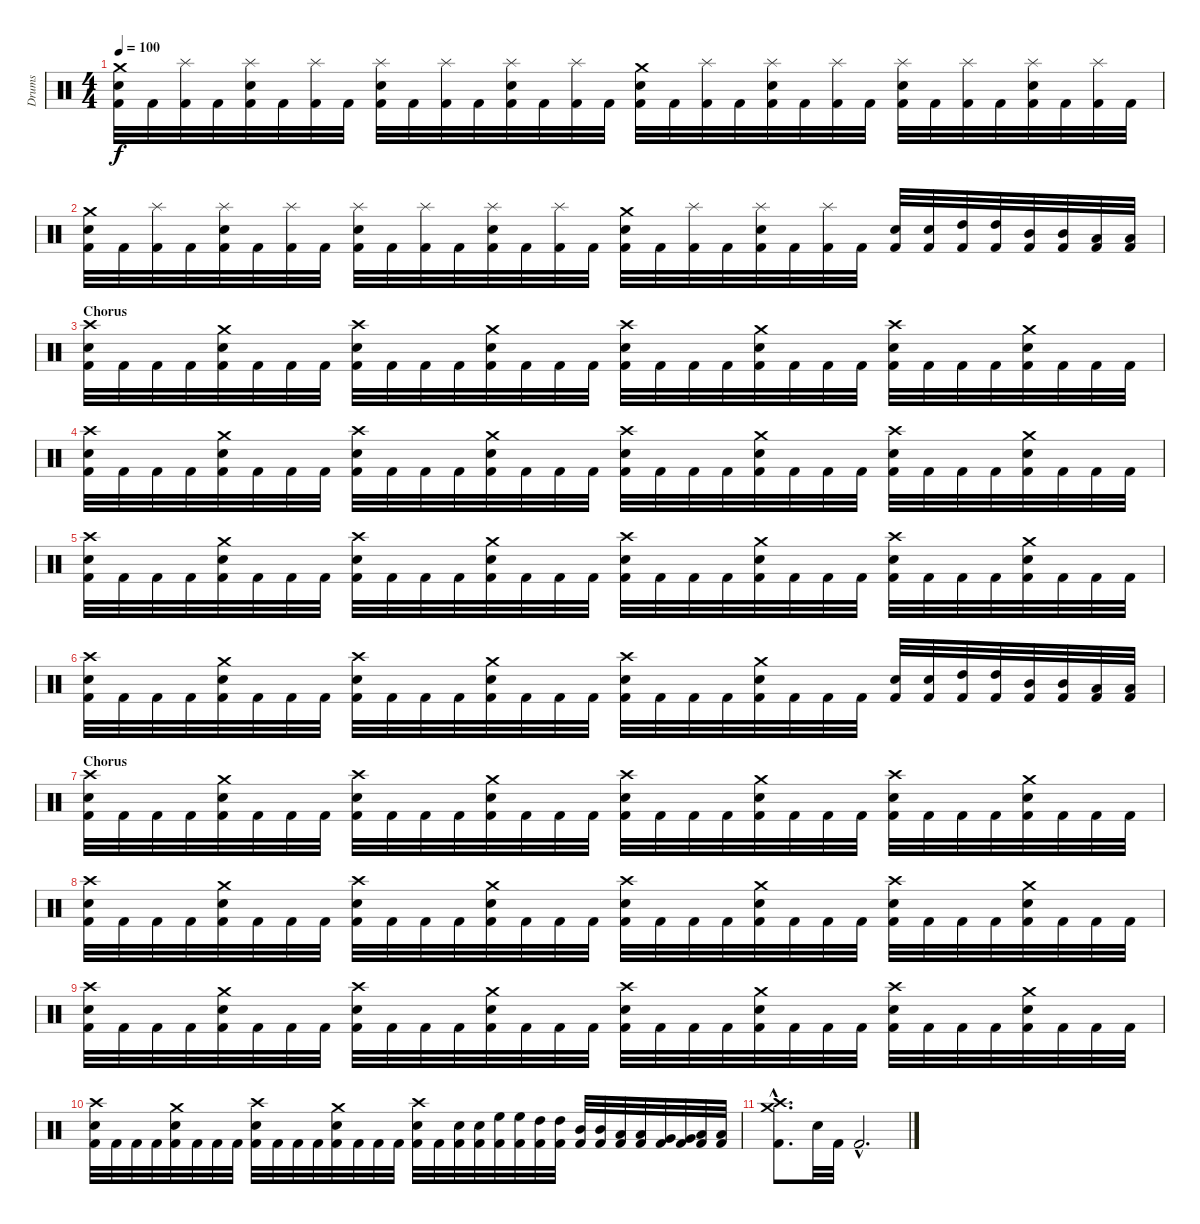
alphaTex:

\track ("Drums" "Drums") {instrument percussion}
\staff {score}
\articulation defaults
\ts (4 4)
\tempo 100
\clef neutral
\ks c
("Crash medium (hit)" "Electric Snare (hit)" "Kick (hit) 2").32{dy f} "Kick (hit) 2".32 ("Splash (hit)" "Kick (hit) 2").32 "Kick (hit) 2".32 ("Splash (hit)" "Electric Snare (hit)" "Kick (hit) 2").32 "Kick (hit) 2".32 ("Splash (hit)" "Kick (hit) 2").32 "Kick (hit) 2".32 ("Splash (hit)" "Electric Snare (hit)" "Kick (hit) 2").32{volume 6} "Kick (hit) 2".32 ("Splash (hit)" "Kick (hit) 2").32 "Kick (hit) 2".32 ("Splash (hit)" "Electric Snare (hit)" "Kick (hit) 2").32 "Kick (hit) 2".32 ("Splash (hit)" "Kick (hit) 2").32 "Kick (hit) 2".32 ("Crash medium (hit)" "Electric Snare (hit)" "Kick (hit) 2").32 "Kick (hit) 2".32 ("Splash (hit)" "Kick (hit) 2").32 "Kick (hit) 2".32 ("Splash (hit)" "Electric Snare (hit)" "Kick (hit) 2").32 "Kick (hit) 2".32 ("Splash (hit)" "Kick (hit) 2").32 "Kick (hit) 2".32 ("Splash (hit)" "Electric Snare (hit)" "Kick (hit) 2").32{volume 4} "Kick (hit) 2".32 ("Splash (hit)" "Kick (hit) 2").32 "Kick (hit) 2".32 ("Splash (hit)" "Electric Snare (hit)" "Kick (hit) 2").32 "Kick (hit) 2".32 ("Splash (hit)" "Kick (hit) 2").32 "Kick (hit) 2".32 |
("Crash medium (hit)" "Electric Snare (hit)" "Kick (hit) 2").32 "Kick (hit) 2".32 ("Splash (hit)" "Kick (hit) 2").32 "Kick (hit) 2".32 ("Splash (hit)" "Electric Snare (hit)" "Kick (hit) 2").32 "Kick (hit) 2".32 ("Splash (hit)" "Kick (hit) 2").32 "Kick (hit) 2".32 ("Splash (hit)" "Electric Snare (hit)" "Kick (hit) 2").32{volume 2} "Kick (hit) 2".32 ("Splash (hit)" "Kick (hit) 2").32 "Kick (hit) 2".32 ("Splash (hit)" "Electric Snare (hit)" "Kick (hit) 2").32 "Kick (hit) 2".32 ("Splash (hit)" "Kick (hit) 2").32 "Kick (hit) 2".32 ("Crash medium (hit)" "Electric Snare (hit)" "Kick (hit) 2").32 "Kick (hit) 2".32 ("Splash (hit)" "Kick (hit) 2").32 "Kick (hit) 2".32 ("Splash (hit)" "Electric Snare (hit)" "Kick (hit) 2").32 "Kick (hit) 2".32 ("Splash (hit)" "Kick (hit) 2").32 "Kick (hit) 2".32 ("Electric Snare (hit)" "Kick (hit) 2").32{volume 0} ("Electric Snare (hit)" "Kick (hit) 2").32 ("High Tom (hit)" "Kick (hit) 2").32 ("High Tom (hit)" "Kick (hit) 2").32 ("Mid Tom (hit)" "Kick (hit) 2").32 ("Mid Tom (hit)" "Kick (hit) 2").32 ("Low Tom (hit)" "Kick (hit) 2").32 ("Low Tom (hit)" "Kick (hit) 2").32 |
\section ("" "Chorus")
("Crash high (hit)" "Electric Snare (hit)" "Kick (hit) 2").32 "Kick (hit) 2".32 "Kick (hit) 2".32 "Kick (hit) 2".32 ("Crash medium (hit)" "Electric Snare (hit)" "Kick (hit) 2").32 "Kick (hit) 2".32 "Kick (hit) 2".32 "Kick (hit) 2".32 ("Crash high (hit)" "Electric Snare (hit)" "Kick (hit) 2").32{volume 2} "Kick (hit) 2".32 "Kick (hit) 2".32 "Kick (hit) 2".32 ("Crash medium (hit)" "Electric Snare (hit)" "Kick (hit) 2").32 "Kick (hit) 2".32 "Kick (hit) 2".32 "Kick (hit) 2".32 ("Crash high (hit)" "Electric Snare (hit)" "Kick (hit) 2").32 "Kick (hit) 2".32 "Kick (hit) 2".32 "Kick (hit) 2".32 ("Crash medium (hit)" "Electric Snare (hit)" "Kick (hit) 2").32 "Kick (hit) 2".32 "Kick (hit) 2".32 "Kick (hit) 2".32 ("Crash high (hit)" "Electric Snare (hit)" "Kick (hit) 2").32{volume 4} "Kick (hit) 2".32 "Kick (hit) 2".32 "Kick (hit) 2".32 ("Crash medium (hit)" "Electric Snare (hit)" "Kick (hit) 2").32 "Kick (hit) 2".32 "Kick (hit) 2".32 "Kick (hit) 2".32 |
("Crash high (hit)" "Electric Snare (hit)" "Kick (hit) 2").32 "Kick (hit) 2".32 "Kick (hit) 2".32 "Kick (hit) 2".32 ("Crash medium (hit)" "Electric Snare (hit)" "Kick (hit) 2").32 "Kick (hit) 2".32 "Kick (hit) 2".32 "Kick (hit) 2".32 ("Crash high (hit)" "Electric Snare (hit)" "Kick (hit) 2").32{volume 6} "Kick (hit) 2".32 "Kick (hit) 2".32 "Kick (hit) 2".32 ("Crash medium (hit)" "Electric Snare (hit)" "Kick (hit) 2").32 "Kick (hit) 2".32 "Kick (hit) 2".32 "Kick (hit) 2".32 ("Crash high (hit)" "Electric Snare (hit)" "Kick (hit) 2").32 "Kick (hit) 2".32 "Kick (hit) 2".32 "Kick (hit) 2".32 ("Crash medium (hit)" "Electric Snare (hit)" "Kick (hit) 2").32 "Kick (hit) 2".32 "Kick (hit) 2".32 "Kick (hit) 2".32 ("Crash high (hit)" "Electric Snare (hit)" "Kick (hit) 2").32{volume 8} "Kick (hit) 2".32 "Kick (hit) 2".32 "Kick (hit) 2".32 ("Crash medium (hit)" "Electric Snare (hit)" "Kick (hit) 2").32 "Kick (hit) 2".32 "Kick (hit) 2".32 "Kick (hit) 2".32 |
("Crash high (hit)" "Electric Snare (hit)" "Kick (hit) 2").32 "Kick (hit) 2".32 "Kick (hit) 2".32 "Kick (hit) 2".32 ("Crash medium (hit)" "Electric Snare (hit)" "Kick (hit) 2").32 "Kick (hit) 2".32 "Kick (hit) 2".32 "Kick (hit) 2".32 ("Crash high (hit)" "Electric Snare (hit)" "Kick (hit) 2").32{volume 10} "Kick (hit) 2".32 "Kick (hit) 2".32 "Kick (hit) 2".32 ("Crash medium (hit)" "Electric Snare (hit)" "Kick (hit) 2").32 "Kick (hit) 2".32 "Kick (hit) 2".32 "Kick (hit) 2".32 ("Crash high (hit)" "Electric Snare (hit)" "Kick (hit) 2").32 "Kick (hit) 2".32 "Kick (hit) 2".32 "Kick (hit) 2".32 ("Crash medium (hit)" "Electric Snare (hit)" "Kick (hit) 2").32 "Kick (hit) 2".32 "Kick (hit) 2".32 "Kick (hit) 2".32 ("Crash high (hit)" "Electric Snare (hit)" "Kick (hit) 2").32{volume 12} "Kick (hit) 2".32 "Kick (hit) 2".32 "Kick (hit) 2".32 ("Crash medium (hit)" "Electric Snare (hit)" "Kick (hit) 2").32 "Kick (hit) 2".32 "Kick (hit) 2".32 "Kick (hit) 2".32 |
("Crash high (hit)" "Electric Snare (hit)" "Kick (hit) 2").32 "Kick (hit) 2".32 "Kick (hit) 2".32 "Kick (hit) 2".32 ("Crash medium (hit)" "Electric Snare (hit)" "Kick (hit) 2").32 "Kick (hit) 2".32 "Kick (hit) 2".32 "Kick (hit) 2".32 ("Crash high (hit)" "Electric Snare (hit)" "Kick (hit) 2").32{volume 14} "Kick (hit) 2".32 "Kick (hit) 2".32 "Kick (hit) 2".32 ("Crash medium (hit)" "Electric Snare (hit)" "Kick (hit) 2").32 "Kick (hit) 2".32 "Kick (hit) 2".32 "Kick (hit) 2".32 ("Crash high (hit)" "Electric Snare (hit)" "Kick (hit) 2").32 "Kick (hit) 2".32 "Kick (hit) 2".32 "Kick (hit) 2".32 ("Crash medium (hit)" "Electric Snare (hit)" "Kick (hit) 2").32 "Kick (hit) 2".32 "Kick (hit) 2".32 "Kick (hit) 2".32 ("Electric Snare (hit)" "Kick (hit) 2").32{volume 15} ("Electric Snare (hit)" "Kick (hit) 2").32 ("High Tom (hit)" "Kick (hit) 2").32 ("High Tom (hit)" "Kick (hit) 2").32 ("Mid Tom (hit)" "Kick (hit) 2").32 ("Mid Tom (hit)" "Kick (hit) 2").32 ("Low Tom (hit)" "Kick (hit) 2").32 ("Low Tom (hit)" "Kick (hit) 2").32 |
\section ("" "Chorus")
("Crash high (hit)" "Electric Snare (hit)" "Kick (hit) 2").32 "Kick (hit) 2".32 "Kick (hit) 2".32 "Kick (hit) 2".32 ("Crash medium (hit)" "Electric Snare (hit)" "Kick (hit) 2").32 "Kick (hit) 2".32 "Kick (hit) 2".32 "Kick (hit) 2".32 ("Crash high (hit)" "Electric Snare (hit)" "Kick (hit) 2").32 "Kick (hit) 2".32 "Kick (hit) 2".32 "Kick (hit) 2".32 ("Crash medium (hit)" "Electric Snare (hit)" "Kick (hit) 2").32 "Kick (hit) 2".32 "Kick (hit) 2".32 "Kick (hit) 2".32 ("Crash high (hit)" "Electric Snare (hit)" "Kick (hit) 2").32 "Kick (hit) 2".32 "Kick (hit) 2".32 "Kick (hit) 2".32 ("Crash medium (hit)" "Electric Snare (hit)" "Kick (hit) 2").32 "Kick (hit) 2".32 "Kick (hit) 2".32 "Kick (hit) 2".32 ("Crash high (hit)" "Electric Snare (hit)" "Kick (hit) 2").32 "Kick (hit) 2".32 "Kick (hit) 2".32 "Kick (hit) 2".32 ("Crash medium (hit)" "Electric Snare (hit)" "Kick (hit) 2").32 "Kick (hit) 2".32 "Kick (hit) 2".32 "Kick (hit) 2".32 |
("Crash high (hit)" "Electric Snare (hit)" "Kick (hit) 2").32 "Kick (hit) 2".32 "Kick (hit) 2".32 "Kick (hit) 2".32 ("Crash medium (hit)" "Electric Snare (hit)" "Kick (hit) 2").32 "Kick (hit) 2".32 "Kick (hit) 2".32 "Kick (hit) 2".32 ("Crash high (hit)" "Electric Snare (hit)" "Kick (hit) 2").32 "Kick (hit) 2".32 "Kick (hit) 2".32 "Kick (hit) 2".32 ("Crash medium (hit)" "Electric Snare (hit)" "Kick (hit) 2").32 "Kick (hit) 2".32 "Kick (hit) 2".32 "Kick (hit) 2".32 ("Crash high (hit)" "Electric Snare (hit)" "Kick (hit) 2").32 "Kick (hit) 2".32 "Kick (hit) 2".32 "Kick (hit) 2".32 ("Crash medium (hit)" "Electric Snare (hit)" "Kick (hit) 2").32 "Kick (hit) 2".32 "Kick (hit) 2".32 "Kick (hit) 2".32 ("Crash high (hit)" "Electric Snare (hit)" "Kick (hit) 2").32 "Kick (hit) 2".32 "Kick (hit) 2".32 "Kick (hit) 2".32 ("Crash medium (hit)" "Electric Snare (hit)" "Kick (hit) 2").32 "Kick (hit) 2".32 "Kick (hit) 2".32 "Kick (hit) 2".32 |
("Crash high (hit)" "Electric Snare (hit)" "Kick (hit) 2").32 "Kick (hit) 2".32 "Kick (hit) 2".32 "Kick (hit) 2".32 ("Crash medium (hit)" "Electric Snare (hit)" "Kick (hit) 2").32 "Kick (hit) 2".32 "Kick (hit) 2".32 "Kick (hit) 2".32 ("Crash high (hit)" "Electric Snare (hit)" "Kick (hit) 2").32 "Kick (hit) 2".32 "Kick (hit) 2".32 "Kick (hit) 2".32 ("Crash medium (hit)" "Electric Snare (hit)" "Kick (hit) 2").32 "Kick (hit) 2".32 "Kick (hit) 2".32 "Kick (hit) 2".32 ("Crash high (hit)" "Electric Snare (hit)" "Kick (hit) 2").32 "Kick (hit) 2".32 "Kick (hit) 2".32 "Kick (hit) 2".32 ("Crash medium (hit)" "Electric Snare (hit)" "Kick (hit) 2").32 "Kick (hit) 2".32 "Kick (hit) 2".32 "Kick (hit) 2".32 ("Crash high (hit)" "Electric Snare (hit)" "Kick (hit) 2").32 "Kick (hit) 2".32 "Kick (hit) 2".32 "Kick (hit) 2".32 ("Crash medium (hit)" "Electric Snare (hit)" "Kick (hit) 2").32 "Kick (hit) 2".32 "Kick (hit) 2".32 "Kick (hit) 2".32 |
("Crash high (hit)" "Electric Snare (hit)" "Kick (hit) 2").32 "Kick (hit) 2".32 "Kick (hit) 2".32 "Kick (hit) 2".32 ("Crash medium (hit)" "Electric Snare (hit)" "Kick (hit) 2").32 "Kick (hit) 2".32 "Kick (hit) 2".32 "Kick (hit) 2".32 ("Crash high (hit)" "Electric Snare (hit)" "Kick (hit) 2").32 "Kick (hit) 2".32 "Kick (hit) 2".32 "Kick (hit) 2".32 ("Crash medium (hit)" "Electric Snare (hit)" "Kick (hit) 2").32 "Kick (hit) 2".32 "Kick (hit) 2".32 "Kick (hit) 2".32 ("Crash high (hit)" "Electric Snare (hit)" "Kick (hit) 2").32 "Kick (hit) 2".32 ("Electric Snare (hit)" "Kick (hit) 2").32 ("Electric Snare (hit)" "Kick (hit) 2").32 ("High Floor Tom (hit)" "Kick (hit) 2").32 ("High Floor Tom (hit)" "Kick (hit) 2").32 ("High Tom (hit)" "Kick (hit) 2").32 ("High Tom (hit)" "Kick (hit) 2").32 ("Mid Tom (hit)" "Kick (hit) 2").32 ("Mid Tom (hit)" "Kick (hit) 2").32 ("Low Tom (hit)" "Kick (hit) 2").32 ("Low Tom (hit)" "Kick (hit) 2").32 ("Very Low Tom (hit)" "Kick (hit) 2").32 ("Very Low Tom (hit)" "Kick (hit) 2").32 ("Low Floor Tom (hit)" "Kick (hit) 2").32 ("Low Floor Tom (hit)" "Kick (hit) 2").32 |
("Crash medium (hit)"{hac} "Crash high (hit)"{hac} "Kick (hit) 2"{hac}).8{d} "Electric Snare (hit)".32 "Kick (hit) 2".32 "Kick (hit) 2"{hac}.2{d}
